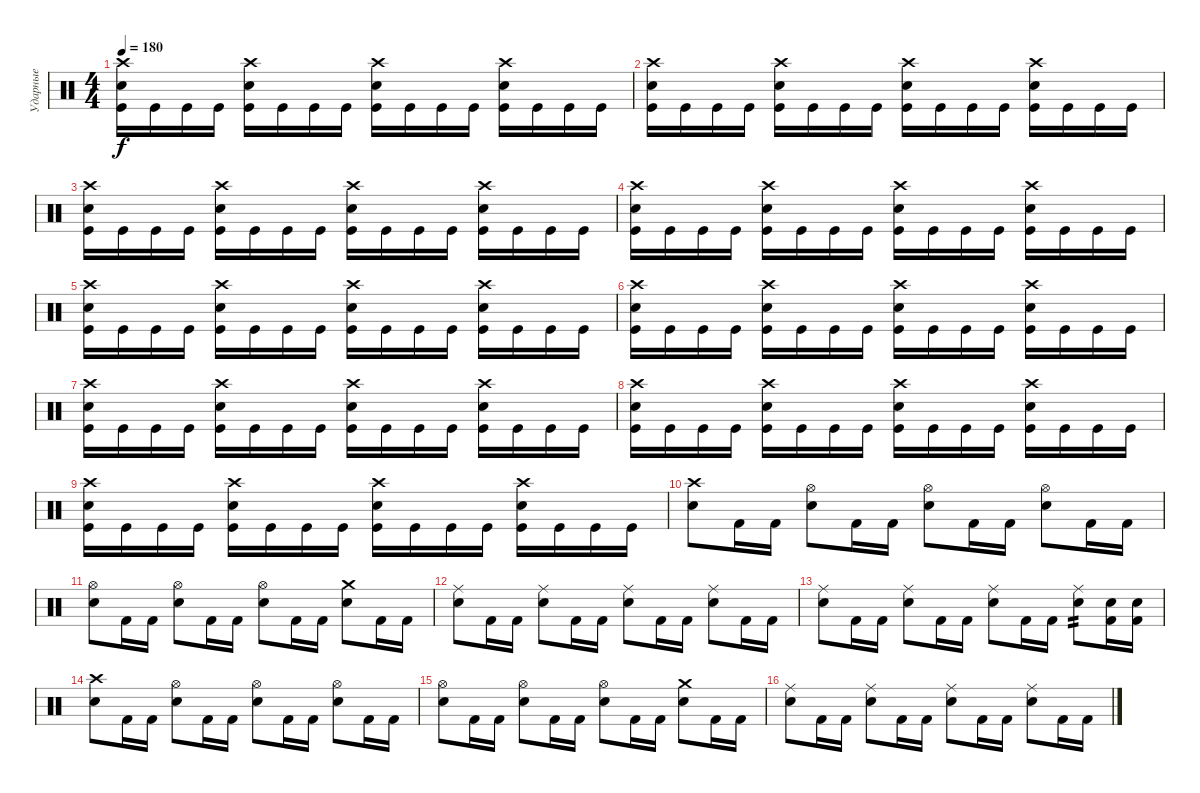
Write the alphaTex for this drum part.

\track ("Ударные" "Ударные") {instrument percussion}
\staff {score}
\articulation defaults
\ts (4 4)
\tempo 180
\clef neutral
\ks c
("Crash high (hit)" "Electric Snare (hit)" "Kick (hit)").16{dy f} "Kick (hit)".16 "Kick (hit)".16 "Kick (hit)".16 ("Crash high (hit)" "Electric Snare (hit)" "Kick (hit)").16 "Kick (hit)".16 "Kick (hit)".16 "Kick (hit)".16 ("Crash high (hit)" "Electric Snare (hit)" "Kick (hit)").16 "Kick (hit)".16 "Kick (hit)".16 "Kick (hit)".16 ("Crash high (hit)" "Electric Snare (hit)" "Kick (hit)").16 "Kick (hit)".16 "Kick (hit)".16 "Kick (hit)".16 |
("Crash high (hit)" "Electric Snare (hit)" "Kick (hit)").16 "Kick (hit)".16 "Kick (hit)".16 "Kick (hit)".16 ("Crash high (hit)" "Electric Snare (hit)" "Kick (hit)").16 "Kick (hit)".16 "Kick (hit)".16 "Kick (hit)".16 ("Crash high (hit)" "Electric Snare (hit)" "Kick (hit)").16 "Kick (hit)".16 "Kick (hit)".16 "Kick (hit)".16 ("Crash high (hit)" "Electric Snare (hit)" "Kick (hit)").16 "Kick (hit)".16 "Kick (hit)".16 "Kick (hit)".16 |
("Crash high (hit)" "Electric Snare (hit)" "Kick (hit)").16 "Kick (hit)".16 "Kick (hit)".16 "Kick (hit)".16 ("Crash high (hit)" "Electric Snare (hit)" "Kick (hit)").16 "Kick (hit)".16 "Kick (hit)".16 "Kick (hit)".16 ("Crash high (hit)" "Electric Snare (hit)" "Kick (hit)").16 "Kick (hit)".16 "Kick (hit)".16 "Kick (hit)".16 ("Crash high (hit)" "Electric Snare (hit)" "Kick (hit)").16 "Kick (hit)".16 "Kick (hit)".16 "Kick (hit)".16 |
("Crash high (hit)" "Electric Snare (hit)" "Kick (hit)").16 "Kick (hit)".16 "Kick (hit)".16 "Kick (hit)".16 ("Crash high (hit)" "Electric Snare (hit)" "Kick (hit)").16 "Kick (hit)".16 "Kick (hit)".16 "Kick (hit)".16 ("Crash high (hit)" "Electric Snare (hit)" "Kick (hit)").16 "Kick (hit)".16 "Kick (hit)".16 "Kick (hit)".16 ("Crash high (hit)" "Electric Snare (hit)" "Kick (hit)").16 "Kick (hit)".16 "Kick (hit)".16 "Kick (hit)".16 |
("Crash high (hit)" "Electric Snare (hit)" "Kick (hit)").16 "Kick (hit)".16 "Kick (hit)".16 "Kick (hit)".16 ("Crash high (hit)" "Electric Snare (hit)" "Kick (hit)").16 "Kick (hit)".16 "Kick (hit)".16 "Kick (hit)".16 ("Crash high (hit)" "Electric Snare (hit)" "Kick (hit)").16 "Kick (hit)".16 "Kick (hit)".16 "Kick (hit)".16 ("Crash high (hit)" "Electric Snare (hit)" "Kick (hit)").16 "Kick (hit)".16 "Kick (hit)".16 "Kick (hit)".16 |
("Crash high (hit)" "Electric Snare (hit)" "Kick (hit)").16 "Kick (hit)".16 "Kick (hit)".16 "Kick (hit)".16 ("Crash high (hit)" "Electric Snare (hit)" "Kick (hit)").16 "Kick (hit)".16 "Kick (hit)".16 "Kick (hit)".16 ("Crash high (hit)" "Electric Snare (hit)" "Kick (hit)").16 "Kick (hit)".16 "Kick (hit)".16 "Kick (hit)".16 ("Crash high (hit)" "Electric Snare (hit)" "Kick (hit)").16 "Kick (hit)".16 "Kick (hit)".16 "Kick (hit)".16 |
("Crash high (hit)" "Electric Snare (hit)" "Kick (hit)").16 "Kick (hit)".16 "Kick (hit)".16 "Kick (hit)".16 ("Crash high (hit)" "Electric Snare (hit)" "Kick (hit)").16 "Kick (hit)".16 "Kick (hit)".16 "Kick (hit)".16 ("Crash high (hit)" "Electric Snare (hit)" "Kick (hit)").16 "Kick (hit)".16 "Kick (hit)".16 "Kick (hit)".16 ("Crash high (hit)" "Electric Snare (hit)" "Kick (hit)").16 "Kick (hit)".16 "Kick (hit)".16 "Kick (hit)".16 |
("Crash high (hit)" "Electric Snare (hit)" "Kick (hit)").16 "Kick (hit)".16 "Kick (hit)".16 "Kick (hit)".16 ("Crash high (hit)" "Electric Snare (hit)" "Kick (hit)").16 "Kick (hit)".16 "Kick (hit)".16 "Kick (hit)".16 ("Crash high (hit)" "Electric Snare (hit)" "Kick (hit)").16 "Kick (hit)".16 "Kick (hit)".16 "Kick (hit)".16 ("Crash high (hit)" "Electric Snare (hit)" "Kick (hit)").16 "Kick (hit)".16 "Kick (hit)".16 "Kick (hit)".16 |
("Crash high (hit)" "Electric Snare (hit)" "Kick (hit)").16 "Kick (hit)".16 "Kick (hit)".16 "Kick (hit)".16 ("Crash high (hit)" "Electric Snare (hit)" "Kick (hit)").16 "Kick (hit)".16 "Kick (hit)".16 "Kick (hit)".16 ("Crash high (hit)" "Electric Snare (hit)" "Kick (hit)").16 "Kick (hit)".16 "Kick (hit)".16 "Kick (hit)".16 ("Crash high (hit)" "Electric Snare (hit)" "Kick (hit)").16 "Kick (hit)".16 "Kick (hit)".16 "Kick (hit)".16 |
("Crash high (hit)" "Electric Snare (hit)").8 "Kick (hit) 2".16 "Kick (hit) 2".16 ("Hi-Hat (open)" "Electric Snare (hit)").8 "Kick (hit) 2".16 "Kick (hit) 2".16 ("Hi-Hat (open)" "Electric Snare (hit)").8 "Kick (hit) 2".16 "Kick (hit) 2".16 ("Hi-Hat (open)" "Electric Snare (hit)").8 "Kick (hit) 2".16 "Kick (hit) 2".16 |
("Hi-Hat (open)" "Electric Snare (hit)").8 "Kick (hit) 2".16 "Kick (hit) 2".16 ("Hi-Hat (open)" "Electric Snare (hit)").8 "Kick (hit) 2".16 "Kick (hit) 2".16 ("Hi-Hat (open)" "Electric Snare (hit)").8 "Kick (hit) 2".16 "Kick (hit) 2".16 ("Crash medium (hit)" "Electric Snare (hit)").8 "Kick (hit) 2".16 "Kick (hit) 2".16 |
("Ride (middle)" "Electric Snare (hit)").8 "Kick (hit) 2".16 "Kick (hit) 2".16 ("Ride (middle)" "Electric Snare (hit)").8 "Kick (hit) 2".16 "Kick (hit) 2".16 ("Ride (middle)" "Electric Snare (hit)").8 "Kick (hit) 2".16 "Kick (hit) 2".16 ("Ride (middle)" "Electric Snare (hit)").8 "Kick (hit) 2".16 "Kick (hit) 2".16 |
("Ride (middle)" "Electric Snare (hit)").8 "Kick (hit) 2".16 "Kick (hit) 2".16 ("Ride (middle)" "Electric Snare (hit)").8 "Kick (hit) 2".16 "Kick (hit) 2".16 ("Ride (middle)" "Electric Snare (hit)").8 "Kick (hit) 2".16 "Kick (hit) 2".16 ("Ride (middle)" "Electric Snare (hit)").8{tp 2} ("Electric Snare (hit)" "Kick (hit) 2").16 ("Electric Snare (hit)" "Kick (hit) 2").16 |
("Crash high (hit)" "Electric Snare (hit)").8 "Kick (hit) 2".16 "Kick (hit) 2".16 ("Hi-Hat (open)" "Electric Snare (hit)").8 "Kick (hit) 2".16 "Kick (hit) 2".16 ("Hi-Hat (open)" "Electric Snare (hit)").8 "Kick (hit) 2".16 "Kick (hit) 2".16 ("Hi-Hat (open)" "Electric Snare (hit)").8 "Kick (hit) 2".16 "Kick (hit) 2".16 |
("Hi-Hat (open)" "Electric Snare (hit)").8 "Kick (hit) 2".16 "Kick (hit) 2".16 ("Hi-Hat (open)" "Electric Snare (hit)").8 "Kick (hit) 2".16 "Kick (hit) 2".16 ("Hi-Hat (open)" "Electric Snare (hit)").8 "Kick (hit) 2".16 "Kick (hit) 2".16 ("Crash medium (hit)" "Electric Snare (hit)").8 "Kick (hit) 2".16 "Kick (hit) 2".16 |
("Ride (middle)" "Electric Snare (hit)").8 "Kick (hit) 2".16 "Kick (hit) 2".16 ("Ride (middle)" "Electric Snare (hit)").8 "Kick (hit) 2".16 "Kick (hit) 2".16 ("Ride (middle)" "Electric Snare (hit)").8 "Kick (hit) 2".16 "Kick (hit) 2".16 ("Ride (middle)" "Electric Snare (hit)").8 "Kick (hit) 2".16 "Kick (hit) 2".16
